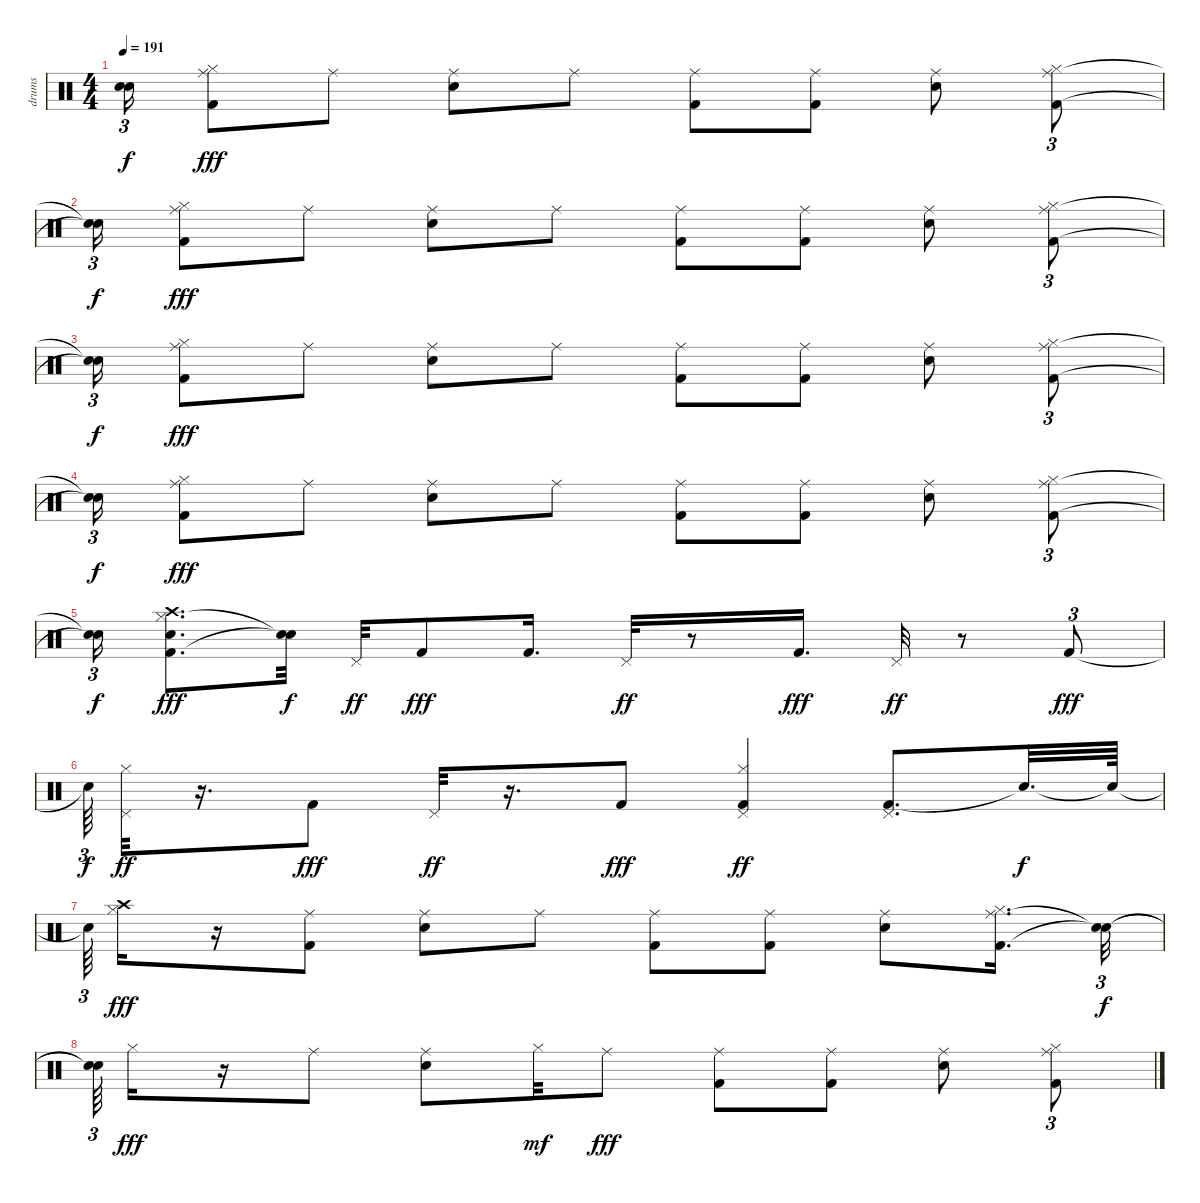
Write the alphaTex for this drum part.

\track ("drums               " "drums     ") {instrument percussion}
\staff {score}
\articulation defaults
\ts (4 4)
\tempo 191
\clef neutral
\ks c
("Snare (hit)"{t} "Snare (hit)"{t}).16{tu (3 2) dy f} ("Kick (hit) 2" "Ride (middle)" "Hi-Hat (closed)").8{dy fff} "Ride (middle)".8 ("Snare (hit) 2" "Ride (middle)").8 "Ride (middle)".8 ("Kick (hit) 2" "Ride (middle)").8 ("Kick (hit) 2" "Ride (middle)").8 ("Snare (hit) 2" "Ride (middle)").8 ("Kick (hit) 2" "Ride (middle)" "Hi-Hat (closed)").8{tu (3 2)} |
("Snare (hit)"{t} "Snare (hit)"{t}).16{tu (3 2) dy f} ("Kick (hit) 2" "Ride (middle)" "Hi-Hat (closed)").8{dy fff} "Ride (middle)".8 ("Snare (hit) 2" "Ride (middle)").8 "Ride (middle)".8 ("Kick (hit) 2" "Ride (middle)").8 ("Kick (hit) 2" "Ride (middle)").8 ("Snare (hit) 2" "Ride (middle)").8 ("Kick (hit) 2" "Ride (middle)" "Hi-Hat (closed)").8{tu (3 2)} |
("Snare (hit)"{t} "Snare (hit)"{t}).16{tu (3 2) dy f} ("Kick (hit) 2" "Ride (middle)" "Hi-Hat (closed)").8{dy fff} "Ride (middle)".8 ("Snare (hit) 2" "Ride (middle)").8 "Ride (middle)".8 ("Kick (hit) 2" "Ride (middle)").8 ("Kick (hit) 2" "Ride (middle)").8 ("Snare (hit) 2" "Ride (middle)").8 ("Kick (hit) 2" "Ride (middle)" "Hi-Hat (closed)").8{tu (3 2)} |
("Snare (hit)"{t} "Snare (hit)"{t}).16{tu (3 2) dy f} ("Kick (hit) 2" "Ride (middle)" "Hi-Hat (closed)").8{dy fff} "Ride (middle)".8 ("Snare (hit) 2" "Ride (middle)").8 "Ride (middle)".8 ("Kick (hit) 2" "Ride (middle)").8 ("Kick (hit) 2" "Ride (middle)").8 ("Snare (hit) 2" "Ride (middle)").8 ("Kick (hit) 2" "Ride (middle)" "Hi-Hat (closed)").8{tu (3 2)} |
("Snare (hit)"{t} "Snare (hit)"{t}).16{tu (3 2) dy f} ("Kick (hit) 2" "Hi-Hat (closed)" "Snare (hit) 2" "Crash high (hit)").8{d dy fff} ("Snare (hit)"{t} "Snare (hit)"{t}).32{dy f} "Pedal Hi-Hat (hit)".32{dy ff} "Kick (hit) 2".8{dy fff} "Kick (hit) 2".16{d} "Pedal Hi-Hat (hit)".32{dy ff} r.8 "Kick (hit) 2".16{d dy fff} "Pedal Hi-Hat (hit)".32{dy ff} r.8 "Kick (hit) 2".8{tu (3 2) dy fff} |
"Snare (hit)"{t}.64{tu (3 2) dy f} ("Hi-Hat (closed)" "Pedal Hi-Hat (hit)").32{dy ff} r.16{d} "Kick (hit) 2".8{dy fff} "Pedal Hi-Hat (hit)".32{dy ff} r.16{d} "Kick (hit) 2".8{dy fff} ("Kick (hit) 2" "Hi-Hat (closed)" "Pedal Hi-Hat (hit)").4{dy ff} ("Kick (hit) 2" "Pedal Hi-Hat (hit)").8{d} "Snare (hit)"{t}.32{d dy f} "Snare (hit)"{t}.64 |
"Snare (hit)"{t}.64{tu (3 2)} ("Hi-Hat (closed)" "Crash high (hit)").16{dy fff} r.16 ("Kick (hit) 2" "Ride (middle)").8 ("Snare (hit) 2" "Ride (middle)").8 "Ride (middle)".8 ("Kick (hit) 2" "Ride (middle)").8 ("Kick (hit) 2" "Ride (middle)").8 ("Snare (hit) 2" "Ride (middle)").8 ("Kick (hit) 2" "Ride (middle)" "Hi-Hat (closed)").16{d} ("Snare (hit)"{t} "Snare (hit)"{t}).32{tu (3 2) dy f} |
("Snare (hit)"{t} "Snare (hit)"{t}).64{tu (3 2)} "Hi-Hat (closed)".16{dy fff} r.16 "Ride (middle)".8 ("Snare (hit) 2" "Ride (middle)").8 "Hi-Hat (closed)".32{dy mf} "Ride (middle)".8{dy fff} ("Kick (hit) 2" "Ride (middle)").8 ("Kick (hit) 2" "Ride (middle)").8 ("Snare (hit) 2" "Ride (middle)").8 ("Kick (hit) 2" "Ride (middle)" "Hi-Hat (closed)").8{tu (3 2)}
